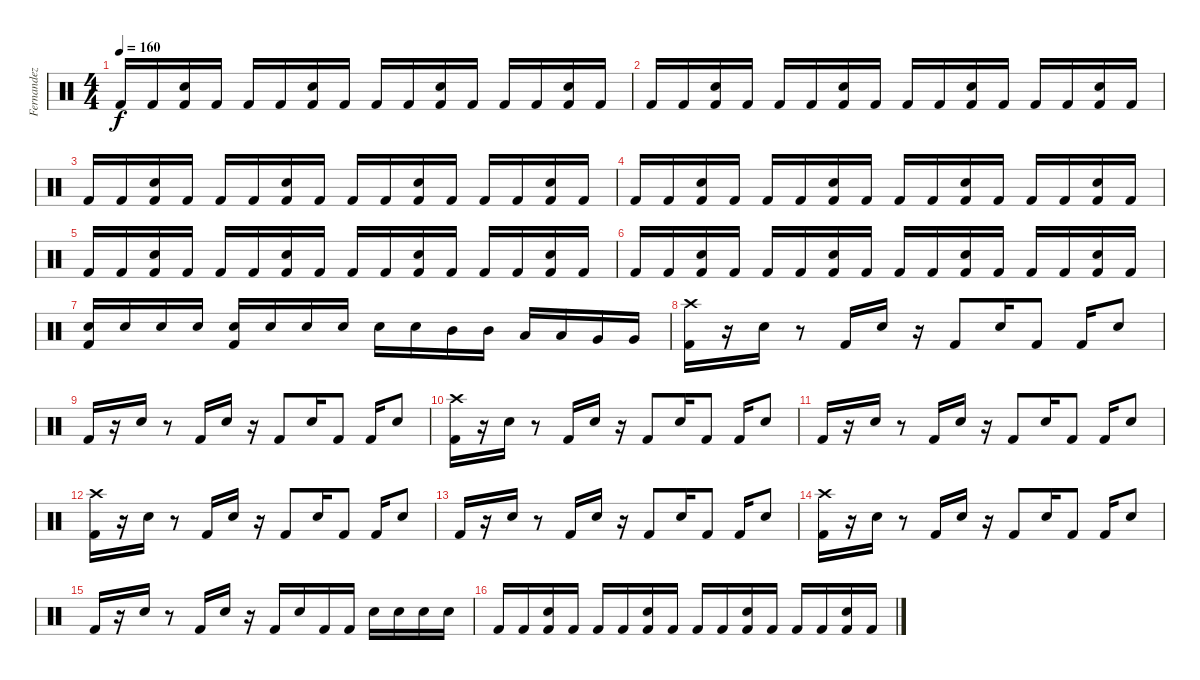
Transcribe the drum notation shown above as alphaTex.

\track ("Fernandez" "Fernandez") {instrument percussion}
\staff {score}
\articulation defaults
\ts (4 4)
\tempo 160
\clef neutral
\ks c "Kick (hit) 2".16{dy f} "Kick (hit) 2".16
("Snare (hit) 2" "Kick (hit) 2").16 "Kick (hit) 2".16 "Kick (hit) 2".16 "Kick (hit) 2".16 ("Snare (hit) 2" "Kick (hit) 2").16 "Kick (hit) 2".16 "Kick (hit) 2".16 "Kick (hit) 2".16 ("Snare (hit) 2" "Kick (hit) 2").16 "Kick (hit) 2".16 "Kick (hit) 2".16 "Kick (hit) 2".16 ("Snare (hit) 2" "Kick (hit) 2").16 "Kick (hit) 2".16 |
"Kick (hit) 2".16 "Kick (hit) 2".16 ("Snare (hit) 2" "Kick (hit) 2").16 "Kick (hit) 2".16 "Kick (hit) 2".16 "Kick (hit) 2".16 ("Snare (hit) 2" "Kick (hit) 2").16 "Kick (hit) 2".16 "Kick (hit) 2".16 "Kick (hit) 2".16 ("Snare (hit) 2" "Kick (hit) 2").16 "Kick (hit) 2".16 "Kick (hit) 2".16 "Kick (hit) 2".16 ("Snare (hit) 2" "Kick (hit) 2").16 "Kick (hit) 2".16 |
"Kick (hit) 2".16 "Kick (hit) 2".16 ("Snare (hit) 2" "Kick (hit) 2").16 "Kick (hit) 2".16 "Kick (hit) 2".16 "Kick (hit) 2".16 ("Snare (hit) 2" "Kick (hit) 2").16 "Kick (hit) 2".16 "Kick (hit) 2".16 "Kick (hit) 2".16 ("Snare (hit) 2" "Kick (hit) 2").16 "Kick (hit) 2".16 "Kick (hit) 2".16 "Kick (hit) 2".16 ("Snare (hit) 2" "Kick (hit) 2").16 "Kick (hit) 2".16 |
"Kick (hit) 2".16 "Kick (hit) 2".16 ("Snare (hit) 2" "Kick (hit) 2").16 "Kick (hit) 2".16 "Kick (hit) 2".16 "Kick (hit) 2".16 ("Snare (hit) 2" "Kick (hit) 2").16 "Kick (hit) 2".16 "Kick (hit) 2".16 "Kick (hit) 2".16 ("Snare (hit) 2" "Kick (hit) 2").16 "Kick (hit) 2".16 "Kick (hit) 2".16 "Kick (hit) 2".16 ("Snare (hit) 2" "Kick (hit) 2").16 "Kick (hit) 2".16 |
"Kick (hit) 2".16 "Kick (hit) 2".16 ("Snare (hit) 2" "Kick (hit) 2").16 "Kick (hit) 2".16 "Kick (hit) 2".16 "Kick (hit) 2".16 ("Snare (hit) 2" "Kick (hit) 2").16 "Kick (hit) 2".16 "Kick (hit) 2".16 "Kick (hit) 2".16 ("Snare (hit) 2" "Kick (hit) 2").16 "Kick (hit) 2".16 "Kick (hit) 2".16 "Kick (hit) 2".16 ("Snare (hit) 2" "Kick (hit) 2").16 "Kick (hit) 2".16 |
"Kick (hit) 2".16 "Kick (hit) 2".16 ("Snare (hit) 2" "Kick (hit) 2").16 "Kick (hit) 2".16 "Kick (hit) 2".16 "Kick (hit) 2".16 ("Snare (hit) 2" "Kick (hit) 2").16 "Kick (hit) 2".16 "Kick (hit) 2".16 "Kick (hit) 2".16 ("Snare (hit) 2" "Kick (hit) 2").16 "Kick (hit) 2".16 "Kick (hit) 2".16 "Kick (hit) 2".16 ("Snare (hit) 2" "Kick (hit) 2").16 "Kick (hit) 2".16 |
("Kick (hit) 2" "Snare (hit) 2").16 "Snare (hit) 2".16 "Snare (hit) 2".16 "Snare (hit) 2".16 ("Kick (hit) 2" "Snare (hit) 2").16 "Snare (hit) 2".16 "Snare (hit) 2".16 "Snare (hit) 2".16 "Snare (hit) 2".16 "Snare (hit) 2".16 "Mid Tom (hit)".16 "Mid Tom (hit)".16 "Low Tom (hit)".16 "Low Tom (hit)".16 "Very Low Tom (hit)".16 "Very Low Tom (hit)".16 |
("Kick (hit) 2" "Crash high (hit)").16 r.16 "Snare (hit) 2".16 r.8 "Kick (hit) 2".16 "Snare (hit) 2".16 r.16 "Kick (hit) 2".8 "Snare (hit) 2".16 "Kick (hit) 2".8 "Kick (hit) 2".16 "Snare (hit) 2".8 |
"Kick (hit) 2".16 r.16 "Snare (hit) 2".16 r.8 "Kick (hit) 2".16 "Snare (hit) 2".16 r.16 "Kick (hit) 2".8 "Snare (hit) 2".16 "Kick (hit) 2".8 "Kick (hit) 2".16 "Snare (hit) 2".8 |
("Kick (hit) 2" "Crash high (hit)").16 r.16 "Snare (hit) 2".16 r.8 "Kick (hit) 2".16 "Snare (hit) 2".16 r.16 "Kick (hit) 2".8 "Snare (hit) 2".16 "Kick (hit) 2".8 "Kick (hit) 2".16 "Snare (hit) 2".8 |
"Kick (hit) 2".16 r.16 "Snare (hit) 2".16 r.8 "Kick (hit) 2".16 "Snare (hit) 2".16 r.16 "Kick (hit) 2".8 "Snare (hit) 2".16 "Kick (hit) 2".8 "Kick (hit) 2".16 "Snare (hit) 2".8 |
("Kick (hit) 2" "Crash high (hit)").16 r.16 "Snare (hit) 2".16 r.8 "Kick (hit) 2".16 "Snare (hit) 2".16 r.16 "Kick (hit) 2".8 "Snare (hit) 2".16 "Kick (hit) 2".8 "Kick (hit) 2".16 "Snare (hit) 2".8 |
"Kick (hit) 2".16 r.16 "Snare (hit) 2".16 r.8 "Kick (hit) 2".16 "Snare (hit) 2".16 r.16 "Kick (hit) 2".8 "Snare (hit) 2".16 "Kick (hit) 2".8 "Kick (hit) 2".16 "Snare (hit) 2".8 |
("Kick (hit) 2" "Crash high (hit)").16 r.16 "Snare (hit) 2".16 r.8 "Kick (hit) 2".16 "Snare (hit) 2".16 r.16 "Kick (hit) 2".8 "Snare (hit) 2".16 "Kick (hit) 2".8 "Kick (hit) 2".16 "Snare (hit) 2".8 |
"Kick (hit) 2".16 r.16 "Snare (hit) 2".16 r.8 "Kick (hit) 2".16 "Snare (hit) 2".16 r.16 "Kick (hit) 2".16 "Snare (hit) 2".16 "Kick (hit) 2".16 "Kick (hit) 2".16 "Snare (hit) 2".16 "Snare (hit) 2".16 "Snare (hit) 2".16 "Snare (hit) 2".16 |
"Kick (hit) 2".16 "Kick (hit) 2".16 ("Snare (hit) 2" "Kick (hit) 2").16 "Kick (hit) 2".16 "Kick (hit) 2".16 "Kick (hit) 2".16 ("Snare (hit) 2" "Kick (hit) 2").16 "Kick (hit) 2".16 "Kick (hit) 2".16 "Kick (hit) 2".16 ("Snare (hit) 2" "Kick (hit) 2").16 "Kick (hit) 2".16 "Kick (hit) 2".16 "Kick (hit) 2".16 ("Snare (hit) 2" "Kick (hit) 2").16 "Kick (hit) 2".16
